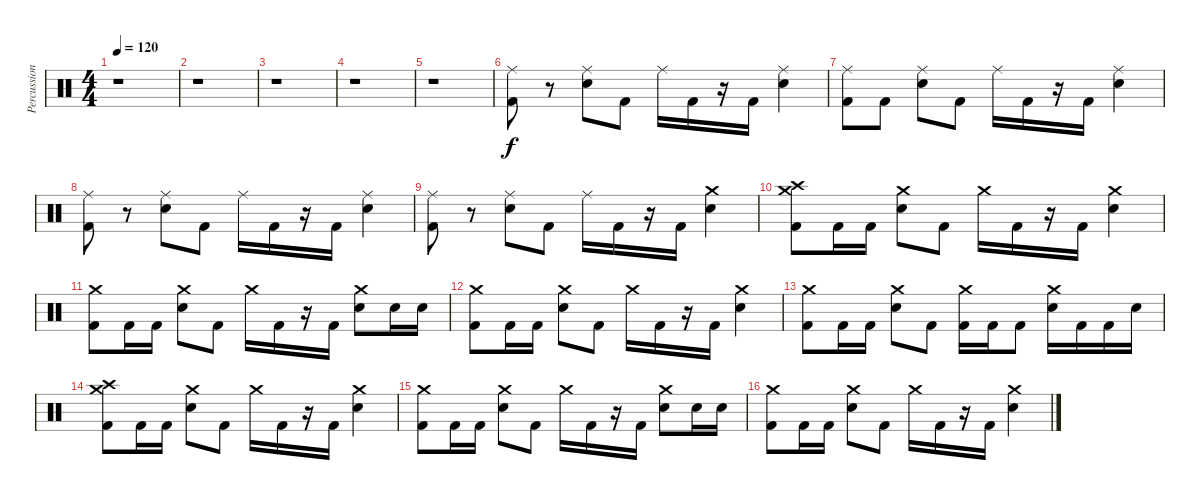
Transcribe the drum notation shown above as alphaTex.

\track ("Percussion" "Percussion") {instrument percussion}
\staff {score}
\articulation defaults
\ts (4 4)
\tempo 120
\clef neutral
\ks c
r.1{dy f} |
r.1 |
r.1 |
r.1 |
r.1 |
("Ride (middle)" "Kick (hit) 2").8 r.8 ("Ride (middle)" "Electric Snare (hit)").8 "Kick (hit) 2".8 "Ride (middle)".16 "Kick (hit) 2".16 r.16 "Kick (hit) 2".16 ("Ride (middle)" "Electric Snare (hit)").4 |
("Ride (middle)" "Kick (hit) 2").8 "Kick (hit) 2".8 ("Ride (middle)" "Electric Snare (hit)").8 "Kick (hit) 2".8 "Ride (middle)".16 "Kick (hit) 2".16 r.16 "Kick (hit) 2".16 ("Ride (middle)" "Electric Snare (hit)").4 |
("Ride (middle)" "Kick (hit) 2").8 r.8 ("Ride (middle)" "Electric Snare (hit)").8 "Kick (hit) 2".8 "Ride (middle)".16 "Kick (hit) 2".16 r.16 "Kick (hit) 2".16 ("Ride (middle)" "Electric Snare (hit)").4 |
("Ride (middle)" "Kick (hit) 2").8 r.8 ("Ride (middle)" "Electric Snare (hit)").8 "Kick (hit) 2".8 "Ride (middle)".16 "Kick (hit) 2".16 r.16 "Kick (hit) 2".16 ("Crash medium (hit)" "Electric Snare (hit)").4 |
("Crash medium (hit)" "Crash high (hit)" "Kick (hit) 2").8 "Kick (hit) 2".16 "Kick (hit) 2".16 ("Crash medium (hit)" "Electric Snare (hit)").8 "Kick (hit) 2".8 "Crash medium (hit)".16 "Kick (hit) 2".16 r.16 "Kick (hit) 2".16 ("Crash medium (hit)" "Electric Snare (hit)").4 |
("Crash medium (hit)" "Kick (hit) 2").8 "Kick (hit) 2".16 "Kick (hit) 2".16 ("Crash medium (hit)" "Electric Snare (hit)").8 "Kick (hit) 2".8 "Crash medium (hit)".16 "Kick (hit) 2".16 r.16 "Kick (hit) 2".16 ("Crash medium (hit)" "Electric Snare (hit)").8 "Electric Snare (hit)".16 "Electric Snare (hit)".16 |
("Crash medium (hit)" "Kick (hit) 2").8 "Kick (hit) 2".16 "Kick (hit) 2".16 ("Crash medium (hit)" "Electric Snare (hit)").8 "Kick (hit) 2".8 "Crash medium (hit)".16 "Kick (hit) 2".16 r.16 "Kick (hit) 2".16 ("Crash medium (hit)" "Electric Snare (hit)").4 |
("Crash medium (hit)" "Kick (hit) 2").8 "Kick (hit) 2".16 "Kick (hit) 2".16 ("Crash medium (hit)" "Electric Snare (hit)").8 "Kick (hit) 2".8 ("Crash medium (hit)" "Kick (hit) 2").16 "Kick (hit) 2".16 "Kick (hit) 2".8 ("Crash medium (hit)" "Electric Snare (hit)").16 "Kick (hit) 2".16 "Kick (hit) 2".16 "Electric Snare (hit)".16 |
("Crash medium (hit)" "Crash high (hit)" "Kick (hit) 2").8 "Kick (hit) 2".16 "Kick (hit) 2".16 ("Crash medium (hit)" "Electric Snare (hit)").8 "Kick (hit) 2".8 "Crash medium (hit)".16 "Kick (hit) 2".16 r.16 "Kick (hit) 2".16 ("Crash medium (hit)" "Electric Snare (hit)").4 |
("Crash medium (hit)" "Kick (hit) 2").8 "Kick (hit) 2".16 "Kick (hit) 2".16 ("Crash medium (hit)" "Electric Snare (hit)").8 "Kick (hit) 2".8 "Crash medium (hit)".16 "Kick (hit) 2".16 r.16 "Kick (hit) 2".16 ("Crash medium (hit)" "Electric Snare (hit)").8 "Electric Snare (hit)".16 "Electric Snare (hit)".16 |
("Crash medium (hit)" "Kick (hit) 2").8 "Kick (hit) 2".16 "Kick (hit) 2".16 ("Crash medium (hit)" "Electric Snare (hit)").8 "Kick (hit) 2".8 "Crash medium (hit)".16 "Kick (hit) 2".16 r.16 "Kick (hit) 2".16 ("Crash medium (hit)" "Electric Snare (hit)").4
